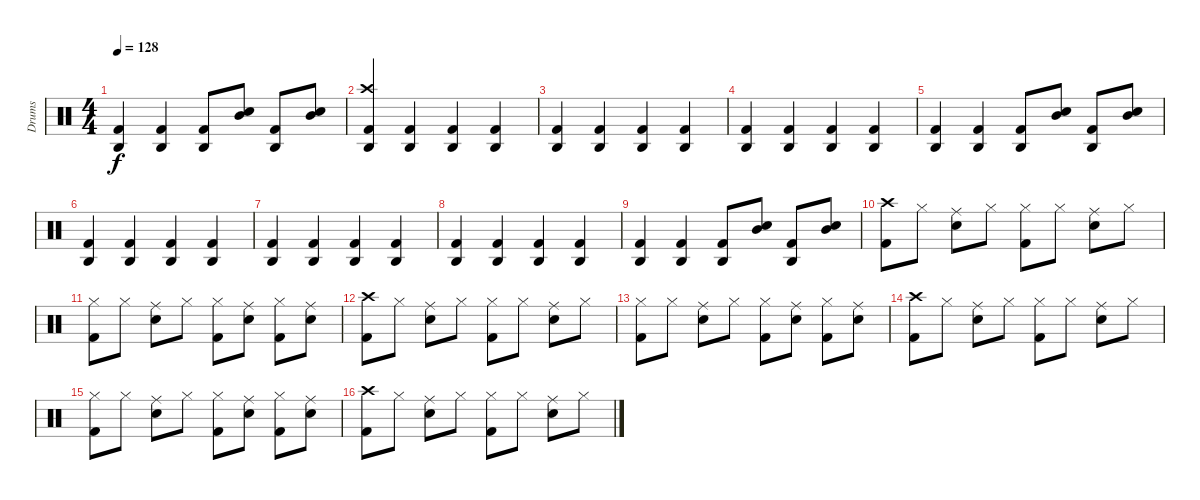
\track ("Drums" "Drums") {instrument percussion}
\staff {score}
\articulation defaults
\ts (4 4)
\tempo 128
\clef neutral
\ks c
("Agogo high (hit)" "Kick (hit) 2").4{dy f} ("Agogo high (hit)" "Kick (hit) 2").4 ("Agogo high (hit)" "Kick (hit) 2").8 ("Mid Tom (hit)" "Snare (hit) 2").8 ("Agogo high (hit)" "Kick (hit) 2").8 ("Mid Tom (hit)" "Snare (hit) 2").8 |
("Agogo high (hit)" "Kick (hit) 2" "Crash high (hit)").4 ("Agogo high (hit)" "Kick (hit) 2").4 ("Agogo high (hit)" "Kick (hit) 2").4 ("Agogo high (hit)" "Kick (hit) 2").4 |
("Agogo high (hit)" "Kick (hit) 2").4 ("Agogo high (hit)" "Kick (hit) 2").4 ("Agogo high (hit)" "Kick (hit) 2").4 ("Agogo high (hit)" "Kick (hit) 2").4 |
("Agogo high (hit)" "Kick (hit) 2").4 ("Agogo high (hit)" "Kick (hit) 2").4 ("Agogo high (hit)" "Kick (hit) 2").4 ("Agogo high (hit)" "Kick (hit) 2").4 |
("Agogo high (hit)" "Kick (hit) 2").4 ("Agogo high (hit)" "Kick (hit) 2").4 ("Agogo high (hit)" "Kick (hit) 2").8 ("Mid Tom (hit)" "Snare (hit) 2").8 ("Agogo high (hit)" "Kick (hit) 2").8 ("Mid Tom (hit)" "Snare (hit) 2").8 |
("Agogo high (hit)" "Kick (hit) 2").4 ("Agogo high (hit)" "Kick (hit) 2").4 ("Agogo high (hit)" "Kick (hit) 2").4 ("Agogo high (hit)" "Kick (hit) 2").4 |
("Agogo high (hit)" "Kick (hit) 2").4 ("Agogo high (hit)" "Kick (hit) 2").4 ("Agogo high (hit)" "Kick (hit) 2").4 ("Agogo high (hit)" "Kick (hit) 2").4 |
("Agogo high (hit)" "Kick (hit) 2").4 ("Agogo high (hit)" "Kick (hit) 2").4 ("Agogo high (hit)" "Kick (hit) 2").4 ("Agogo high (hit)" "Kick (hit) 2").4 |
("Agogo high (hit)" "Kick (hit) 2").4 ("Agogo high (hit)" "Kick (hit) 2").4 ("Agogo high (hit)" "Kick (hit) 2").8 ("Mid Tom (hit)" "Snare (hit) 2").8 ("Agogo high (hit)" "Kick (hit) 2").8 ("Mid Tom (hit)" "Snare (hit) 2").8 |
("Crash high (hit)" "Kick (hit) 2").8 "Hi-Hat (closed)".8 ("Ride (middle)" "Snare (hit) 2").8 "Hi-Hat (closed)".8 ("Hi-Hat (closed)" "Kick (hit) 2").8 "Hi-Hat (closed)".8 ("Ride (middle)" "Snare (hit) 2").8 "Hi-Hat (closed)".8 |
("Hi-Hat (closed)" "Kick (hit) 2").8 "Hi-Hat (closed)".8 ("Ride (middle)" "Snare (hit) 2").8 "Hi-Hat (closed)".8 ("Hi-Hat (closed)" "Kick (hit) 2").8 ("Ride (middle)" "Snare (hit) 2").8 ("Hi-Hat (closed)" "Kick (hit) 2").8 ("Ride (middle)" "Snare (hit) 2").8 |
("Crash high (hit)" "Kick (hit) 2").8 "Hi-Hat (closed)".8 ("Ride (middle)" "Snare (hit) 2").8 "Hi-Hat (closed)".8 ("Hi-Hat (closed)" "Kick (hit) 2").8 "Hi-Hat (closed)".8 ("Ride (middle)" "Snare (hit) 2").8 "Hi-Hat (closed)".8 |
("Hi-Hat (closed)" "Kick (hit) 2").8 "Hi-Hat (closed)".8 ("Ride (middle)" "Snare (hit) 2").8 "Hi-Hat (closed)".8 ("Hi-Hat (closed)" "Kick (hit) 2").8 ("Ride (middle)" "Snare (hit) 2").8 ("Hi-Hat (closed)" "Kick (hit) 2").8 ("Ride (middle)" "Snare (hit) 2").8 |
("Crash high (hit)" "Kick (hit) 2").8 "Hi-Hat (closed)".8 ("Ride (middle)" "Snare (hit) 2").8 "Hi-Hat (closed)".8 ("Hi-Hat (closed)" "Kick (hit) 2").8 "Hi-Hat (closed)".8 ("Ride (middle)" "Snare (hit) 2").8 "Hi-Hat (closed)".8 |
("Hi-Hat (closed)" "Kick (hit) 2").8 "Hi-Hat (closed)".8 ("Ride (middle)" "Snare (hit) 2").8 "Hi-Hat (closed)".8 ("Hi-Hat (closed)" "Kick (hit) 2").8 ("Ride (middle)" "Snare (hit) 2").8 ("Hi-Hat (closed)" "Kick (hit) 2").8 ("Ride (middle)" "Snare (hit) 2").8 |
("Crash high (hit)" "Kick (hit) 2").8 "Hi-Hat (closed)".8 ("Ride (middle)" "Snare (hit) 2").8 "Hi-Hat (closed)".8 ("Hi-Hat (closed)" "Kick (hit) 2").8 "Hi-Hat (closed)".8 ("Ride (middle)" "Snare (hit) 2").8 "Hi-Hat (closed)".8
